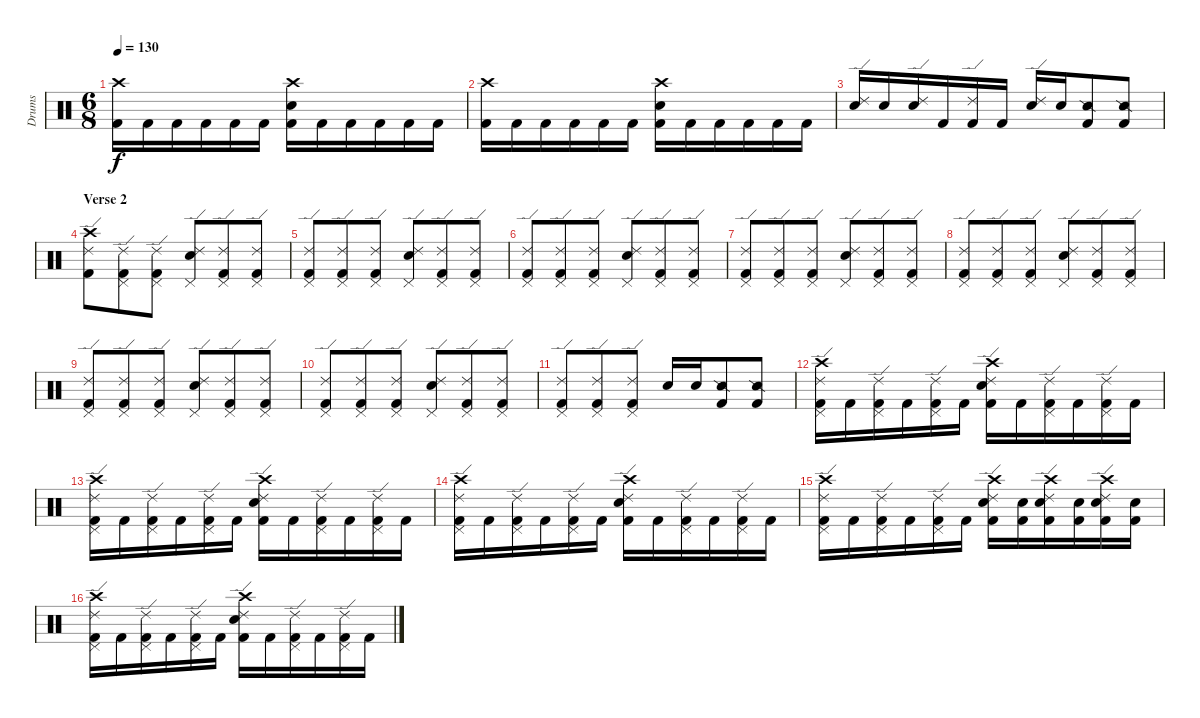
\track ("Drums" "Drums") {instrument percussion}
\staff {score}
\articulation defaults
\ts (6 8)
\tempo 130
\clef neutral
\ks c
("Crash high (hit)" "Kick (hit) 2").16{dy f} "Kick (hit) 2".16 "Kick (hit) 2".16 "Kick (hit) 2".16 "Kick (hit) 2".16 "Kick (hit) 2".16 ("Crash high (hit)" "Electric Snare (hit)" "Kick (hit) 2").16 "Kick (hit) 2".16 "Kick (hit) 2".16 "Kick (hit) 2".16 "Kick (hit) 2".16 "Kick (hit) 2".16 |
("Crash high (hit)" "Kick (hit) 2").16 "Kick (hit) 2".16 "Kick (hit) 2".16 "Kick (hit) 2".16 "Kick (hit) 2".16 "Kick (hit) 2".16 ("Crash high (hit)" "Electric Snare (hit)" "Kick (hit) 2").16 "Kick (hit) 2".16 "Kick (hit) 2".16 "Kick (hit) 2".16 "Kick (hit) 2".16 "Kick (hit) 2".16 |
("Ride (edge) 2" "Electric Snare (hit)").16 "Electric Snare (hit)".16 ("Ride (edge) 2" "Electric Snare (hit)").16 "Kick (hit) 2".16 ("Ride (edge) 2" "Kick (hit) 2").16 "Kick (hit) 2".16 ("Ride (edge) 2" "Electric Snare (hit)").16 "Electric Snare (hit)".16 ("Snare (side stick) 2" "Kick (hit) 2").8 ("Snare (side stick) 2" "Kick (hit) 2").8 |
\section ("" "Verse 2")
("Ride (edge) 2" "Crash high (hit)" "Kick (hit) 2").8 ("Ride (edge) 2" "Pedal Hi-Hat (hit)" "Kick (hit) 2").8 ("Ride (edge) 2" "Pedal Hi-Hat (hit)" "Kick (hit) 2").8 ("Ride (edge) 2" "Pedal Hi-Hat (hit)" "Electric Snare (hit)").8 ("Ride (edge) 2" "Pedal Hi-Hat (hit)" "Kick (hit) 2").8 ("Ride (edge) 2" "Pedal Hi-Hat (hit)" "Kick (hit) 2").8 |
("Ride (edge) 2" "Pedal Hi-Hat (hit)" "Kick (hit) 2").8 ("Ride (edge) 2" "Pedal Hi-Hat (hit)" "Kick (hit) 2").8 ("Ride (edge) 2" "Pedal Hi-Hat (hit)" "Kick (hit) 2").8 ("Ride (edge) 2" "Pedal Hi-Hat (hit)" "Electric Snare (hit)").8 ("Ride (edge) 2" "Pedal Hi-Hat (hit)" "Kick (hit) 2").8 ("Ride (edge) 2" "Pedal Hi-Hat (hit)" "Kick (hit) 2").8 |
("Ride (edge) 2" "Pedal Hi-Hat (hit)" "Kick (hit) 2").8 ("Ride (edge) 2" "Pedal Hi-Hat (hit)" "Kick (hit) 2").8 ("Ride (edge) 2" "Pedal Hi-Hat (hit)" "Kick (hit) 2").8 ("Ride (edge) 2" "Pedal Hi-Hat (hit)" "Electric Snare (hit)").8 ("Ride (edge) 2" "Pedal Hi-Hat (hit)" "Kick (hit) 2").8 ("Ride (edge) 2" "Pedal Hi-Hat (hit)" "Kick (hit) 2").8 |
("Ride (edge) 2" "Pedal Hi-Hat (hit)" "Kick (hit) 2").8 ("Ride (edge) 2" "Pedal Hi-Hat (hit)" "Kick (hit) 2").8 ("Ride (edge) 2" "Pedal Hi-Hat (hit)" "Kick (hit) 2").8 ("Ride (edge) 2" "Pedal Hi-Hat (hit)" "Electric Snare (hit)").8 ("Ride (edge) 2" "Pedal Hi-Hat (hit)" "Kick (hit) 2").8 ("Ride (edge) 2" "Pedal Hi-Hat (hit)" "Kick (hit) 2").8 |
("Ride (edge) 2" "Pedal Hi-Hat (hit)" "Kick (hit) 2").8 ("Ride (edge) 2" "Pedal Hi-Hat (hit)" "Kick (hit) 2").8 ("Ride (edge) 2" "Pedal Hi-Hat (hit)" "Kick (hit) 2").8 ("Ride (edge) 2" "Pedal Hi-Hat (hit)" "Electric Snare (hit)").8 ("Ride (edge) 2" "Pedal Hi-Hat (hit)" "Kick (hit) 2").8 ("Ride (edge) 2" "Pedal Hi-Hat (hit)" "Kick (hit) 2").8 |
("Ride (edge) 2" "Pedal Hi-Hat (hit)" "Kick (hit) 2").8 ("Ride (edge) 2" "Pedal Hi-Hat (hit)" "Kick (hit) 2").8 ("Ride (edge) 2" "Pedal Hi-Hat (hit)" "Kick (hit) 2").8 ("Ride (edge) 2" "Pedal Hi-Hat (hit)" "Electric Snare (hit)").8 ("Ride (edge) 2" "Pedal Hi-Hat (hit)" "Kick (hit) 2").8 ("Ride (edge) 2" "Pedal Hi-Hat (hit)" "Kick (hit) 2").8 |
("Ride (edge) 2" "Pedal Hi-Hat (hit)" "Kick (hit) 2").8 ("Ride (edge) 2" "Pedal Hi-Hat (hit)" "Kick (hit) 2").8 ("Ride (edge) 2" "Pedal Hi-Hat (hit)" "Kick (hit) 2").8 ("Ride (edge) 2" "Pedal Hi-Hat (hit)" "Electric Snare (hit)").8 ("Ride (edge) 2" "Pedal Hi-Hat (hit)" "Kick (hit) 2").8 ("Ride (edge) 2" "Pedal Hi-Hat (hit)" "Kick (hit) 2").8 |
("Ride (edge) 2" "Pedal Hi-Hat (hit)" "Kick (hit) 2").8 ("Ride (edge) 2" "Pedal Hi-Hat (hit)" "Kick (hit) 2").8 ("Ride (edge) 2" "Pedal Hi-Hat (hit)" "Kick (hit) 2").8 "Electric Snare (hit)".16 "Electric Snare (hit)".16 ("Snare (side stick) 2" "Kick (hit) 2").8 ("Snare (side stick) 2" "Kick (hit) 2").8 |
("Ride (edge) 2" "Crash high (hit)" "Pedal Hi-Hat (hit)" "Kick (hit) 2").16 "Kick (hit) 2".16 ("Ride (edge) 2" "Pedal Hi-Hat (hit)" "Kick (hit) 2").16 "Kick (hit) 2".16 ("Ride (edge) 2" "Pedal Hi-Hat (hit)" "Kick (hit) 2").16 "Kick (hit) 2".16 ("Ride (edge) 2" "Crash high (hit)" "Electric Snare (hit)" "Kick (hit) 2").16 "Kick (hit) 2".16 ("Ride (edge) 2" "Pedal Hi-Hat (hit)" "Kick (hit) 2").16 "Kick (hit) 2".16 ("Ride (edge) 2" "Pedal Hi-Hat (hit)" "Kick (hit) 2").16 "Kick (hit) 2".16 |
("Ride (edge) 2" "Crash high (hit)" "Pedal Hi-Hat (hit)" "Kick (hit) 2").16 "Kick (hit) 2".16 ("Ride (edge) 2" "Pedal Hi-Hat (hit)" "Kick (hit) 2").16 "Kick (hit) 2".16 ("Ride (edge) 2" "Pedal Hi-Hat (hit)" "Kick (hit) 2").16 "Kick (hit) 2".16 ("Ride (edge) 2" "Crash high (hit)" "Electric Snare (hit)" "Kick (hit) 2").16 "Kick (hit) 2".16 ("Ride (edge) 2" "Pedal Hi-Hat (hit)" "Kick (hit) 2").16 "Kick (hit) 2".16 ("Ride (edge) 2" "Pedal Hi-Hat (hit)" "Kick (hit) 2").16 "Kick (hit) 2".16 |
("Ride (edge) 2" "Crash high (hit)" "Pedal Hi-Hat (hit)" "Kick (hit) 2").16 "Kick (hit) 2".16 ("Ride (edge) 2" "Pedal Hi-Hat (hit)" "Kick (hit) 2").16 "Kick (hit) 2".16 ("Ride (edge) 2" "Pedal Hi-Hat (hit)" "Kick (hit) 2").16 "Kick (hit) 2".16 ("Ride (edge) 2" "Crash high (hit)" "Electric Snare (hit)" "Kick (hit) 2").16 "Kick (hit) 2".16 ("Ride (edge) 2" "Pedal Hi-Hat (hit)" "Kick (hit) 2").16 "Kick (hit) 2".16 ("Ride (edge) 2" "Pedal Hi-Hat (hit)" "Kick (hit) 2").16 "Kick (hit) 2".16 |
("Ride (edge) 2" "Crash high (hit)" "Pedal Hi-Hat (hit)" "Kick (hit) 2").16 "Kick (hit) 2".16 ("Ride (edge) 2" "Pedal Hi-Hat (hit)" "Kick (hit) 2").16 "Kick (hit) 2".16 ("Ride (edge) 2" "Pedal Hi-Hat (hit)" "Kick (hit) 2").16 "Kick (hit) 2".16 ("Ride (edge) 2" "Crash high (hit)" "Electric Snare (hit)" "Kick (hit) 2").16 ("Electric Snare (hit)" "Kick (hit) 2").16 ("Ride (edge) 2" "Crash high (hit)" "Electric Snare (hit)" "Kick (hit) 2").16 ("Electric Snare (hit)" "Kick (hit) 2").16 ("Ride (edge) 2" "Crash high (hit)" "Electric Snare (hit)" "Kick (hit) 2").16 ("Electric Snare (hit)" "Kick (hit) 2").16 |
("Ride (edge) 2" "Crash high (hit)" "Pedal Hi-Hat (hit)" "Kick (hit) 2").16 "Kick (hit) 2".16 ("Ride (edge) 2" "Pedal Hi-Hat (hit)" "Kick (hit) 2").16 "Kick (hit) 2".16 ("Ride (edge) 2" "Pedal Hi-Hat (hit)" "Kick (hit) 2").16 "Kick (hit) 2".16 ("Ride (edge) 2" "Crash high (hit)" "Electric Snare (hit)" "Kick (hit) 2").16 "Kick (hit) 2".16 ("Ride (edge) 2" "Pedal Hi-Hat (hit)" "Kick (hit) 2").16 "Kick (hit) 2".16 ("Ride (edge) 2" "Pedal Hi-Hat (hit)" "Kick (hit) 2").16 "Kick (hit) 2".16
